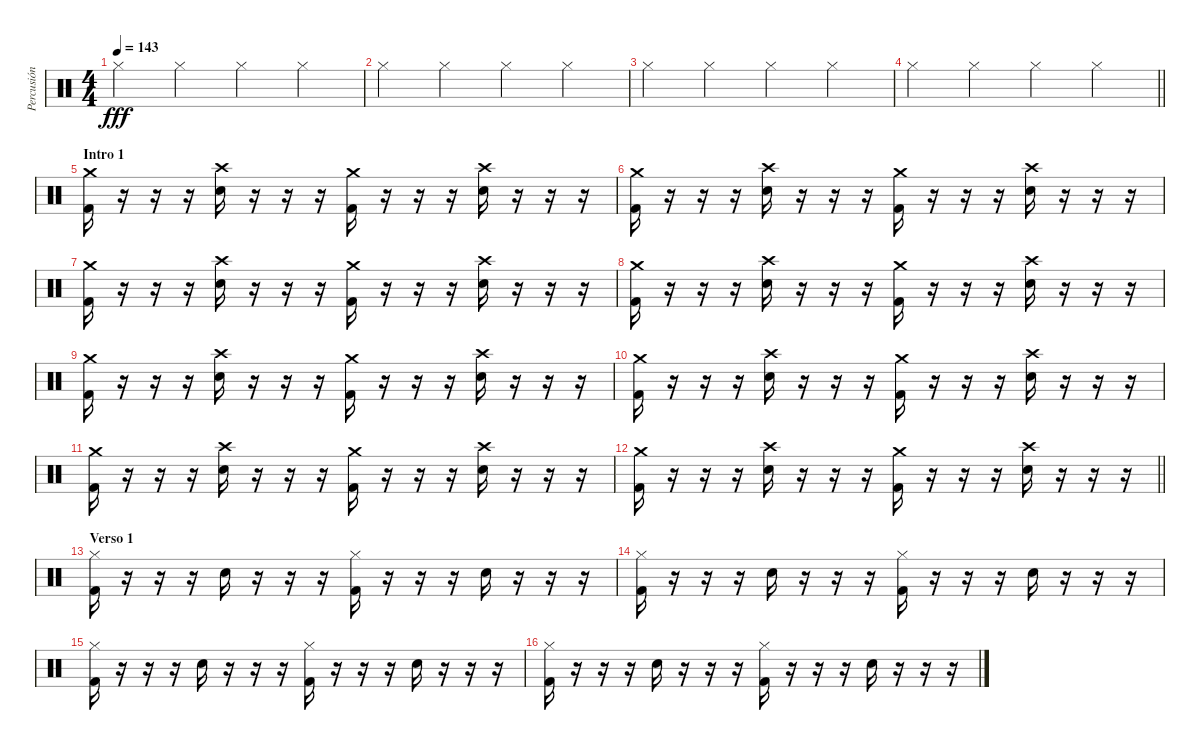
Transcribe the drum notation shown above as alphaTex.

\track ("Percusión" "Percusión") {instrument percussion}
\staff {score}
\articulation defaults
\ts (4 4)
\tempo 143
\clef neutral
\ks c "Hi-Hat (closed)".4{dy fff} "Hi-Hat (closed)".4 "Hi-Hat (closed)".4 "Hi-Hat (closed)".4
|
"Hi-Hat (closed)".4 "Hi-Hat (closed)".4 "Hi-Hat (closed)".4 "Hi-Hat (closed)".4 |
"Hi-Hat (closed)".4 "Hi-Hat (closed)".4 "Hi-Hat (closed)".4 "Hi-Hat (closed)".4 |
\barLineRight lightlight "Hi-Hat (closed)".4 "Hi-Hat (closed)".4 "Hi-Hat (closed)".4 "Hi-Hat (closed)".4
|
\section ("" "Intro 1")
("Kick (hit) 2" "Crash medium (hit)").16 r.16 r.16 r.16 ("Snare (hit) 2" "Crash high (hit)").16 r.16 r.16 r.16 ("Kick (hit) 2" "Crash medium (hit)").16 r.16 r.16 r.16 ("Snare (hit) 2" "Crash high (hit)").16 r.16 r.16 r.16 |
("Kick (hit) 2" "Crash medium (hit)").16 r.16 r.16 r.16 ("Snare (hit) 2" "Crash high (hit)").16 r.16 r.16 r.16 ("Kick (hit) 2" "Crash medium (hit)").16 r.16 r.16 r.16 ("Snare (hit) 2" "Crash high (hit)").16 r.16 r.16 r.16 |
("Kick (hit) 2" "Crash medium (hit)").16 r.16 r.16 r.16 ("Snare (hit) 2" "Crash high (hit)").16 r.16 r.16 r.16 ("Kick (hit) 2" "Crash medium (hit)").16 r.16 r.16 r.16 ("Snare (hit) 2" "Crash high (hit)").16 r.16 r.16 r.16 |
("Kick (hit) 2" "Crash medium (hit)").16 r.16 r.16 r.16 ("Snare (hit) 2" "Crash high (hit)").16 r.16 r.16 r.16 ("Kick (hit) 2" "Crash medium (hit)").16 r.16 r.16 r.16 ("Snare (hit) 2" "Crash high (hit)").16 r.16 r.16 r.16 |
("Kick (hit) 2" "Crash medium (hit)").16 r.16 r.16 r.16 ("Snare (hit) 2" "Crash high (hit)").16 r.16 r.16 r.16 ("Kick (hit) 2" "Crash medium (hit)").16 r.16 r.16 r.16 ("Snare (hit) 2" "Crash high (hit)").16 r.16 r.16 r.16 |
("Kick (hit) 2" "Crash medium (hit)").16 r.16 r.16 r.16 ("Snare (hit) 2" "Crash high (hit)").16 r.16 r.16 r.16 ("Kick (hit) 2" "Crash medium (hit)").16 r.16 r.16 r.16 ("Snare (hit) 2" "Crash high (hit)").16 r.16 r.16 r.16 |
("Kick (hit) 2" "Crash medium (hit)").16 r.16 r.16 r.16 ("Snare (hit) 2" "Crash high (hit)").16 r.16 r.16 r.16 ("Kick (hit) 2" "Crash medium (hit)").16 r.16 r.16 r.16 ("Snare (hit) 2" "Crash high (hit)").16 r.16 r.16 r.16 |
\barLineRight lightlight
("Kick (hit) 2" "Crash medium (hit)").16 r.16 r.16 r.16 ("Snare (hit) 2" "Crash high (hit)").16 r.16 r.16 r.16 ("Kick (hit) 2" "Crash medium (hit)").16 r.16 r.16 r.16 ("Snare (hit) 2" "Crash high (hit)").16 r.16 r.16 r.16 |
\section ("" "Verso 1")
("Kick (hit) 2" "Hi-Hat (closed)").16 r.16 r.16 r.16 "Snare (hit) 2".16 r.16 r.16 r.16 ("Kick (hit) 2" "Hi-Hat (closed)").16 r.16 r.16 r.16 "Snare (hit) 2".16 r.16 r.16 r.16 |
("Kick (hit) 2" "Hi-Hat (closed)").16 r.16 r.16 r.16 "Snare (hit) 2".16 r.16 r.16 r.16 ("Kick (hit) 2" "Hi-Hat (closed)").16 r.16 r.16 r.16 "Snare (hit) 2".16 r.16 r.16 r.16 |
("Kick (hit) 2" "Hi-Hat (closed)").16 r.16 r.16 r.16 "Snare (hit) 2".16 r.16 r.16 r.16 ("Kick (hit) 2" "Hi-Hat (closed)").16 r.16 r.16 r.16 "Snare (hit) 2".16 r.16 r.16 r.16 |
("Kick (hit) 2" "Hi-Hat (closed)").16 r.16 r.16 r.16 "Snare (hit) 2".16 r.16 r.16 r.16 ("Kick (hit) 2" "Hi-Hat (closed)").16 r.16 r.16 r.16 "Snare (hit) 2".16 r.16 r.16 r.16
